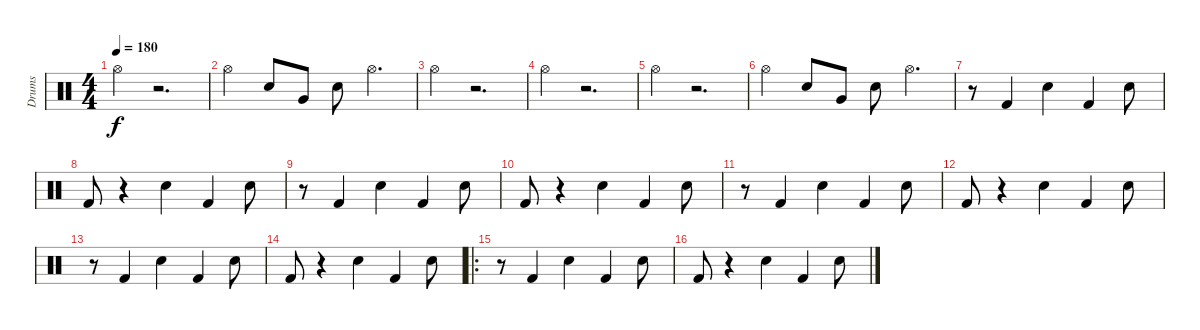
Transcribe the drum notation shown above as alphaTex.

\track ("Drums" "Drums") {instrument percussion}
\staff {score}
\articulation defaults
\ts (4 4)
\tempo 180
\clef neutral
\ks c "Hi-Hat (open)".4{dy f}
r.2{d} |
"Hi-Hat (open)".4 "Electric Snare (hit)".8 "Very Low Tom (hit)".8 "Snare (hit) 2".8 "Hi-Hat (open)".4{d} |
"Hi-Hat (open)".4 r.2{d} |
"Hi-Hat (open)".4 r.2{d} |
"Hi-Hat (open)".4 r.2{d} |
"Hi-Hat (open)".4 "Electric Snare (hit)".8 "Very Low Tom (hit)".8 "Snare (hit) 2".8 "Hi-Hat (open)".4{d} |
r.8 "Kick (hit) 2".4 "Snare (hit) 2".4 "Kick (hit) 2".4 "Snare (hit) 2".8 |
"Kick (hit) 2".8 r.4 "Snare (hit) 2".4 "Kick (hit) 2".4 "Snare (hit) 2".8 |
r.8 "Kick (hit) 2".4 "Snare (hit) 2".4 "Kick (hit) 2".4 "Snare (hit) 2".8 |
"Kick (hit) 2".8 r.4 "Snare (hit) 2".4 "Kick (hit) 2".4 "Snare (hit) 2".8 |
r.8 "Kick (hit) 2".4 "Snare (hit) 2".4 "Kick (hit) 2".4 "Snare (hit) 2".8 |
"Kick (hit) 2".8 r.4 "Snare (hit) 2".4 "Kick (hit) 2".4 "Snare (hit) 2".8 |
r.8 "Kick (hit) 2".4 "Snare (hit) 2".4 "Kick (hit) 2".4 "Snare (hit) 2".8 |
"Kick (hit) 2".8 r.4 "Snare (hit) 2".4 "Kick (hit) 2".4 "Snare (hit) 2".8 |
\ro
r.8 "Kick (hit) 2".4 "Snare (hit) 2".4 "Kick (hit) 2".4 "Snare (hit) 2".8 |
"Kick (hit) 2".8 r.4 "Snare (hit) 2".4 "Kick (hit) 2".4 "Snare (hit) 2".8
